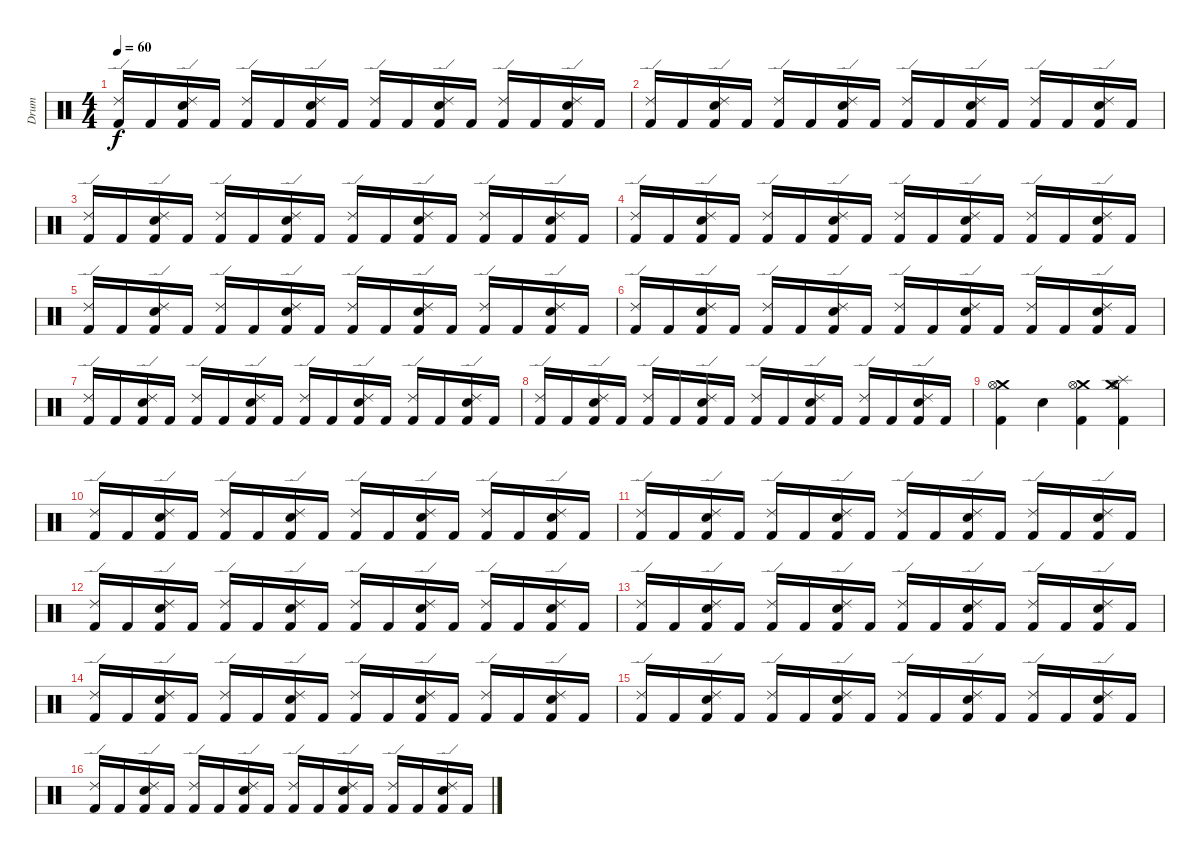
\track ("Drum" "Drum") {instrument percussion}
\staff {score}
\articulation defaults
\ts (4 4)
\tempo 60
\clef neutral
\ks c
("Ride (edge) 2" "Kick (hit) 2").16{dy f} "Kick (hit) 2".16 ("Electric Snare (hit)" "Ride (edge) 2" "Kick (hit) 2").16 "Kick (hit) 2".16 ("Ride (edge) 2" "Kick (hit) 2").16 "Kick (hit) 2".16 ("Electric Snare (hit)" "Ride (edge) 2" "Kick (hit) 2").16 "Kick (hit) 2".16 ("Ride (edge) 2" "Kick (hit) 2").16 "Kick (hit) 2".16 ("Electric Snare (hit)" "Ride (edge) 2" "Kick (hit) 2").16 "Kick (hit) 2".16 ("Ride (edge) 2" "Kick (hit) 2").16 "Kick (hit) 2".16 ("Electric Snare (hit)" "Ride (edge) 2" "Kick (hit) 2").16 "Kick (hit) 2".16 |
("Ride (edge) 2" "Kick (hit) 2").16 "Kick (hit) 2".16 ("Electric Snare (hit)" "Ride (edge) 2" "Kick (hit) 2").16 "Kick (hit) 2".16 ("Ride (edge) 2" "Kick (hit) 2").16 "Kick (hit) 2".16 ("Electric Snare (hit)" "Ride (edge) 2" "Kick (hit) 2").16 "Kick (hit) 2".16 ("Ride (edge) 2" "Kick (hit) 2").16 "Kick (hit) 2".16 ("Electric Snare (hit)" "Ride (edge) 2" "Kick (hit) 2").16 "Kick (hit) 2".16 ("Ride (edge) 2" "Kick (hit) 2").16 "Kick (hit) 2".16 ("Electric Snare (hit)" "Ride (edge) 2" "Kick (hit) 2").16 "Kick (hit) 2".16 |
("Ride (edge) 2" "Kick (hit) 2").16 "Kick (hit) 2".16 ("Electric Snare (hit)" "Ride (edge) 2" "Kick (hit) 2").16 "Kick (hit) 2".16 ("Ride (edge) 2" "Kick (hit) 2").16 "Kick (hit) 2".16 ("Electric Snare (hit)" "Ride (edge) 2" "Kick (hit) 2").16 "Kick (hit) 2".16 ("Ride (edge) 2" "Kick (hit) 2").16 "Kick (hit) 2".16 ("Electric Snare (hit)" "Ride (edge) 2" "Kick (hit) 2").16 "Kick (hit) 2".16 ("Ride (edge) 2" "Kick (hit) 2").16 "Kick (hit) 2".16 ("Electric Snare (hit)" "Ride (edge) 2" "Kick (hit) 2").16 "Kick (hit) 2".16 |
("Ride (edge) 2" "Kick (hit) 2").16 "Kick (hit) 2".16 ("Electric Snare (hit)" "Ride (edge) 2" "Kick (hit) 2").16 "Kick (hit) 2".16 ("Ride (edge) 2" "Kick (hit) 2").16 "Kick (hit) 2".16 ("Electric Snare (hit)" "Ride (edge) 2" "Kick (hit) 2").16 "Kick (hit) 2".16 ("Ride (edge) 2" "Kick (hit) 2").16 "Kick (hit) 2".16 ("Electric Snare (hit)" "Ride (edge) 2" "Kick (hit) 2").16 "Kick (hit) 2".16 ("Ride (edge) 2" "Kick (hit) 2").16 "Kick (hit) 2".16 ("Electric Snare (hit)" "Ride (edge) 2" "Kick (hit) 2").16 "Kick (hit) 2".16 |
("Ride (edge) 2" "Kick (hit) 2").16 "Kick (hit) 2".16 ("Electric Snare (hit)" "Ride (edge) 2" "Kick (hit) 2").16 "Kick (hit) 2".16 ("Ride (edge) 2" "Kick (hit) 2").16 "Kick (hit) 2".16 ("Electric Snare (hit)" "Ride (edge) 2" "Kick (hit) 2").16 "Kick (hit) 2".16 ("Ride (edge) 2" "Kick (hit) 2").16 "Kick (hit) 2".16 ("Electric Snare (hit)" "Ride (edge) 2" "Kick (hit) 2").16 "Kick (hit) 2".16 ("Ride (edge) 2" "Kick (hit) 2").16 "Kick (hit) 2".16 ("Electric Snare (hit)" "Ride (edge) 2" "Kick (hit) 2").16 "Kick (hit) 2".16 |
("Ride (edge) 2" "Kick (hit) 2").16 "Kick (hit) 2".16 ("Electric Snare (hit)" "Ride (edge) 2" "Kick (hit) 2").16 "Kick (hit) 2".16 ("Ride (edge) 2" "Kick (hit) 2").16 "Kick (hit) 2".16 ("Electric Snare (hit)" "Ride (edge) 2" "Kick (hit) 2").16 "Kick (hit) 2".16 ("Ride (edge) 2" "Kick (hit) 2").16 "Kick (hit) 2".16 ("Electric Snare (hit)" "Ride (edge) 2" "Kick (hit) 2").16 "Kick (hit) 2".16 ("Ride (edge) 2" "Kick (hit) 2").16 "Kick (hit) 2".16 ("Electric Snare (hit)" "Ride (edge) 2" "Kick (hit) 2").16 "Kick (hit) 2".16 |
("Ride (edge) 2" "Kick (hit) 2").16 "Kick (hit) 2".16 ("Electric Snare (hit)" "Ride (edge) 2" "Kick (hit) 2").16 "Kick (hit) 2".16 ("Ride (edge) 2" "Kick (hit) 2").16 "Kick (hit) 2".16 ("Electric Snare (hit)" "Ride (edge) 2" "Kick (hit) 2").16 "Kick (hit) 2".16 ("Ride (edge) 2" "Kick (hit) 2").16 "Kick (hit) 2".16 ("Electric Snare (hit)" "Ride (edge) 2" "Kick (hit) 2").16 "Kick (hit) 2".16 ("Ride (edge) 2" "Kick (hit) 2").16 "Kick (hit) 2".16 ("Electric Snare (hit)" "Ride (edge) 2" "Kick (hit) 2").16 "Kick (hit) 2".16 |
("Ride (edge) 2" "Kick (hit) 2").16 "Kick (hit) 2".16 ("Electric Snare (hit)" "Ride (edge) 2" "Kick (hit) 2").16 "Kick (hit) 2".16 ("Ride (edge) 2" "Kick (hit) 2").16 "Kick (hit) 2".16 ("Electric Snare (hit)" "Ride (edge) 2" "Kick (hit) 2").16 "Kick (hit) 2".16 ("Ride (edge) 2" "Kick (hit) 2").16 "Kick (hit) 2".16 ("Electric Snare (hit)" "Ride (edge) 2" "Kick (hit) 2").16 "Kick (hit) 2".16 ("Ride (edge) 2" "Kick (hit) 2").16 "Kick (hit) 2".16 ("Electric Snare (hit)" "Ride (edge) 2" "Kick (hit) 2").16 "Kick (hit) 2".16 |
("Crash medium (hit)" "Hi-Hat (open)" "Kick (hit) 2").4 "Electric Snare (hit)".4 ("Crash medium (hit)" "Hi-Hat (open)" "Kick (hit) 2").4 ("Crash medium (hit)" "Splash (hit)" "Hi-Hat (open)" "Kick (hit) 2").4 |
("Ride (edge) 2" "Kick (hit) 2").16 "Kick (hit) 2".16 ("Electric Snare (hit)" "Ride (edge) 2" "Kick (hit) 2").16 "Kick (hit) 2".16 ("Ride (edge) 2" "Kick (hit) 2").16 "Kick (hit) 2".16 ("Electric Snare (hit)" "Ride (edge) 2" "Kick (hit) 2").16 "Kick (hit) 2".16 ("Ride (edge) 2" "Kick (hit) 2").16 "Kick (hit) 2".16 ("Electric Snare (hit)" "Ride (edge) 2" "Kick (hit) 2").16 "Kick (hit) 2".16 ("Ride (edge) 2" "Kick (hit) 2").16 "Kick (hit) 2".16 ("Electric Snare (hit)" "Ride (edge) 2" "Kick (hit) 2").16 "Kick (hit) 2".16 |
("Ride (edge) 2" "Kick (hit) 2").16 "Kick (hit) 2".16 ("Electric Snare (hit)" "Ride (edge) 2" "Kick (hit) 2").16 "Kick (hit) 2".16 ("Ride (edge) 2" "Kick (hit) 2").16 "Kick (hit) 2".16 ("Electric Snare (hit)" "Ride (edge) 2" "Kick (hit) 2").16 "Kick (hit) 2".16 ("Ride (edge) 2" "Kick (hit) 2").16 "Kick (hit) 2".16 ("Electric Snare (hit)" "Ride (edge) 2" "Kick (hit) 2").16 "Kick (hit) 2".16 ("Ride (edge) 2" "Kick (hit) 2").16 "Kick (hit) 2".16 ("Electric Snare (hit)" "Ride (edge) 2" "Kick (hit) 2").16 "Kick (hit) 2".16 |
("Ride (edge) 2" "Kick (hit) 2").16 "Kick (hit) 2".16 ("Electric Snare (hit)" "Ride (edge) 2" "Kick (hit) 2").16 "Kick (hit) 2".16 ("Ride (edge) 2" "Kick (hit) 2").16 "Kick (hit) 2".16 ("Electric Snare (hit)" "Ride (edge) 2" "Kick (hit) 2").16 "Kick (hit) 2".16 ("Ride (edge) 2" "Kick (hit) 2").16 "Kick (hit) 2".16 ("Electric Snare (hit)" "Ride (edge) 2" "Kick (hit) 2").16 "Kick (hit) 2".16 ("Ride (edge) 2" "Kick (hit) 2").16 "Kick (hit) 2".16 ("Electric Snare (hit)" "Ride (edge) 2" "Kick (hit) 2").16 "Kick (hit) 2".16 |
("Ride (edge) 2" "Kick (hit) 2").16 "Kick (hit) 2".16 ("Electric Snare (hit)" "Ride (edge) 2" "Kick (hit) 2").16 "Kick (hit) 2".16 ("Ride (edge) 2" "Kick (hit) 2").16 "Kick (hit) 2".16 ("Electric Snare (hit)" "Ride (edge) 2" "Kick (hit) 2").16 "Kick (hit) 2".16 ("Ride (edge) 2" "Kick (hit) 2").16 "Kick (hit) 2".16 ("Electric Snare (hit)" "Ride (edge) 2" "Kick (hit) 2").16 "Kick (hit) 2".16 ("Ride (edge) 2" "Kick (hit) 2").16 "Kick (hit) 2".16 ("Electric Snare (hit)" "Ride (edge) 2" "Kick (hit) 2").16 "Kick (hit) 2".16 |
("Ride (edge) 2" "Kick (hit) 2").16 "Kick (hit) 2".16 ("Electric Snare (hit)" "Ride (edge) 2" "Kick (hit) 2").16 "Kick (hit) 2".16 ("Ride (edge) 2" "Kick (hit) 2").16 "Kick (hit) 2".16 ("Electric Snare (hit)" "Ride (edge) 2" "Kick (hit) 2").16 "Kick (hit) 2".16 ("Ride (edge) 2" "Kick (hit) 2").16 "Kick (hit) 2".16 ("Electric Snare (hit)" "Ride (edge) 2" "Kick (hit) 2").16 "Kick (hit) 2".16 ("Ride (edge) 2" "Kick (hit) 2").16 "Kick (hit) 2".16 ("Electric Snare (hit)" "Ride (edge) 2" "Kick (hit) 2").16 "Kick (hit) 2".16 |
("Ride (edge) 2" "Kick (hit) 2").16 "Kick (hit) 2".16 ("Electric Snare (hit)" "Ride (edge) 2" "Kick (hit) 2").16 "Kick (hit) 2".16 ("Ride (edge) 2" "Kick (hit) 2").16 "Kick (hit) 2".16 ("Electric Snare (hit)" "Ride (edge) 2" "Kick (hit) 2").16 "Kick (hit) 2".16 ("Ride (edge) 2" "Kick (hit) 2").16 "Kick (hit) 2".16 ("Electric Snare (hit)" "Ride (edge) 2" "Kick (hit) 2").16 "Kick (hit) 2".16 ("Ride (edge) 2" "Kick (hit) 2").16 "Kick (hit) 2".16 ("Electric Snare (hit)" "Ride (edge) 2" "Kick (hit) 2").16 "Kick (hit) 2".16 |
("Ride (edge) 2" "Kick (hit) 2").16 "Kick (hit) 2".16 ("Electric Snare (hit)" "Ride (edge) 2" "Kick (hit) 2").16 "Kick (hit) 2".16 ("Ride (edge) 2" "Kick (hit) 2").16 "Kick (hit) 2".16 ("Electric Snare (hit)" "Ride (edge) 2" "Kick (hit) 2").16 "Kick (hit) 2".16 ("Ride (edge) 2" "Kick (hit) 2").16 "Kick (hit) 2".16 ("Electric Snare (hit)" "Ride (edge) 2" "Kick (hit) 2").16 "Kick (hit) 2".16 ("Ride (edge) 2" "Kick (hit) 2").16 "Kick (hit) 2".16 ("Electric Snare (hit)" "Ride (edge) 2" "Kick (hit) 2").16 "Kick (hit) 2".16
